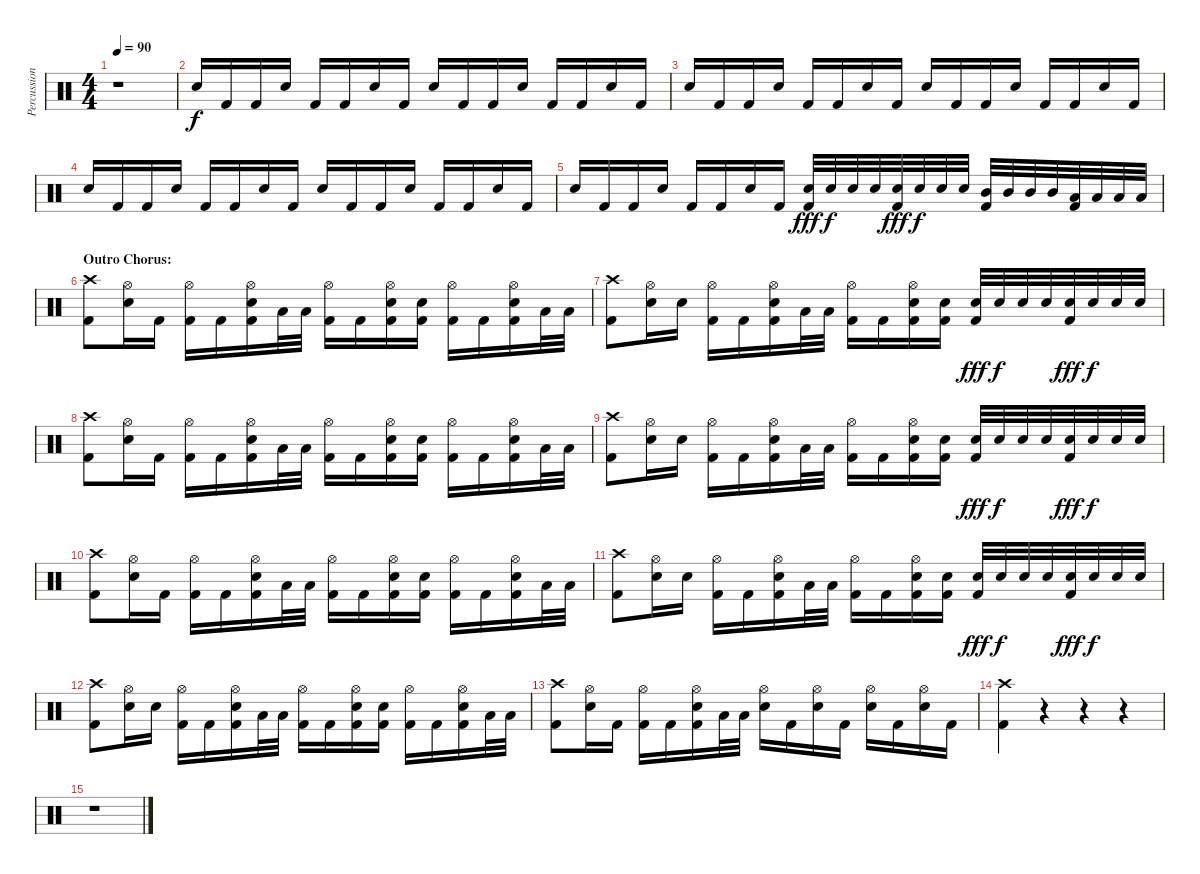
\track ("Percussion" "Percussion") {instrument percussion}
\staff {score}
\articulation defaults
\ts (4 4)
\tempo 90
\clef neutral
\ks c
r.1{dy f} |
"Electric Snare (hit)".16 "Kick (hit) 2".16 "Kick (hit) 2".16 "Electric Snare (hit)".16 "Kick (hit) 2".16 "Kick (hit) 2".16 "Electric Snare (hit)".16 "Kick (hit) 2".16 "Electric Snare (hit)".16 "Kick (hit) 2".16 "Kick (hit) 2".16 "Electric Snare (hit)".16 "Kick (hit) 2".16 "Kick (hit) 2".16 "Electric Snare (hit)".16 "Kick (hit) 2".16 |
"Electric Snare (hit)".16 "Kick (hit) 2".16 "Kick (hit) 2".16 "Electric Snare (hit)".16 "Kick (hit) 2".16 "Kick (hit) 2".16 "Electric Snare (hit)".16 "Kick (hit) 2".16 "Electric Snare (hit)".16 "Kick (hit) 2".16 "Kick (hit) 2".16 "Electric Snare (hit)".16 "Kick (hit) 2".16 "Kick (hit) 2".16 "Electric Snare (hit)".16 "Kick (hit) 2".16 |
"Electric Snare (hit)".16 "Kick (hit) 2".16 "Kick (hit) 2".16 "Electric Snare (hit)".16 "Kick (hit) 2".16 "Kick (hit) 2".16 "Electric Snare (hit)".16 "Kick (hit) 2".16 "Electric Snare (hit)".16 "Kick (hit) 2".16 "Kick (hit) 2".16 "Electric Snare (hit)".16 "Kick (hit) 2".16 "Kick (hit) 2".16 "Electric Snare (hit)".16 "Kick (hit) 2".16 |
"Electric Snare (hit)".16 "Kick (hit) 2".16 "Kick (hit) 2".16 "Electric Snare (hit)".16 "Kick (hit) 2".16 "Kick (hit) 2".16 "Electric Snare (hit)".16 "Kick (hit) 2".16 ("Electric Snare (hit)" "Kick (hit) 2").32{dy fff} "Electric Snare (hit)".32{dy f} "Electric Snare (hit)".32 "Electric Snare (hit)".32 ("Electric Snare (hit)" "Kick (hit) 2").32{dy fff} "Electric Snare (hit)".32{dy f} "Electric Snare (hit)".32 "Electric Snare (hit)".32 ("Mid Tom (hit)" "Kick (hit) 2").32 "Mid Tom (hit)".32 "Mid Tom (hit)".32 "Mid Tom (hit)".32 ("Low Tom (hit)" "Kick (hit) 2").32 "Low Tom (hit)".32 "Low Tom (hit)".32 "Low Tom (hit)".32 |
\section ("" "Outro Chorus:")
("Crash high (hit)" "Kick (hit) 2").8 ("Hi-Hat (open)" "Electric Snare (hit)").16 "Kick (hit) 2".16 ("Hi-Hat (open)" "Kick (hit) 2").16 "Kick (hit) 2".16 ("Hi-Hat (open)" "Electric Snare (hit)" "Kick (hit) 2").16 "Low Floor Tom (hit)".32 "Low Floor Tom (hit)".32 ("Hi-Hat (open)" "Kick (hit) 2").16 "Kick (hit) 2".16 ("Hi-Hat (open)" "Electric Snare (hit)" "Kick (hit) 2").16 ("Electric Snare (hit)" "Kick (hit) 2").16 ("Hi-Hat (open)" "Kick (hit) 2").16 "Kick (hit) 2".16 ("Hi-Hat (open)" "Electric Snare (hit)" "Kick (hit) 2").16 "Low Floor Tom (hit)".32 "Low Floor Tom (hit)".32 |
("Crash high (hit)" "Kick (hit) 2").8 ("Hi-Hat (open)" "Electric Snare (hit)").16 "Electric Snare (hit)".16 ("Hi-Hat (open)" "Kick (hit) 2").16 "Kick (hit) 2".16 ("Hi-Hat (open)" "Electric Snare (hit)" "Kick (hit) 2").16 "Low Floor Tom (hit)".32 "Low Floor Tom (hit)".32 ("Hi-Hat (open)" "Kick (hit) 2").16 "Kick (hit) 2".16 ("Hi-Hat (open)" "Electric Snare (hit)" "Kick (hit) 2").16 ("Electric Snare (hit)" "Kick (hit) 2").16 ("Electric Snare (hit)" "Kick (hit) 2").32{dy fff} "Electric Snare (hit)".32{dy f} "Electric Snare (hit)".32 "Electric Snare (hit)".32 ("Electric Snare (hit)" "Kick (hit) 2").32{dy fff} "Electric Snare (hit)".32{dy f} "Electric Snare (hit)".32 "Electric Snare (hit)".32 |
("Crash high (hit)" "Kick (hit) 2").8 ("Hi-Hat (open)" "Electric Snare (hit)").16 "Kick (hit) 2".16 ("Hi-Hat (open)" "Kick (hit) 2").16 "Kick (hit) 2".16 ("Hi-Hat (open)" "Electric Snare (hit)" "Kick (hit) 2").16 "Low Floor Tom (hit)".32 "Low Floor Tom (hit)".32 ("Hi-Hat (open)" "Kick (hit) 2").16 "Kick (hit) 2".16 ("Hi-Hat (open)" "Electric Snare (hit)" "Kick (hit) 2").16 ("Electric Snare (hit)" "Kick (hit) 2").16 ("Hi-Hat (open)" "Kick (hit) 2").16 "Kick (hit) 2".16 ("Hi-Hat (open)" "Electric Snare (hit)" "Kick (hit) 2").16 "Low Floor Tom (hit)".32 "Low Floor Tom (hit)".32 |
("Crash high (hit)" "Kick (hit) 2").8 ("Hi-Hat (open)" "Electric Snare (hit)").16 "Electric Snare (hit)".16 ("Hi-Hat (open)" "Kick (hit) 2").16 "Kick (hit) 2".16 ("Hi-Hat (open)" "Electric Snare (hit)" "Kick (hit) 2").16 "Low Floor Tom (hit)".32 "Low Floor Tom (hit)".32 ("Hi-Hat (open)" "Kick (hit) 2").16 "Kick (hit) 2".16 ("Hi-Hat (open)" "Electric Snare (hit)" "Kick (hit) 2").16 ("Electric Snare (hit)" "Kick (hit) 2").16 ("Electric Snare (hit)" "Kick (hit) 2").32{dy fff} "Electric Snare (hit)".32{dy f} "Electric Snare (hit)".32 "Electric Snare (hit)".32 ("Electric Snare (hit)" "Kick (hit) 2").32{dy fff} "Electric Snare (hit)".32{dy f} "Electric Snare (hit)".32 "Electric Snare (hit)".32 |
("Crash high (hit)" "Kick (hit) 2").8 ("Hi-Hat (open)" "Electric Snare (hit)").16 "Kick (hit) 2".16 ("Hi-Hat (open)" "Kick (hit) 2").16 "Kick (hit) 2".16 ("Hi-Hat (open)" "Electric Snare (hit)" "Kick (hit) 2").16 "Low Floor Tom (hit)".32 "Low Floor Tom (hit)".32 ("Hi-Hat (open)" "Kick (hit) 2").16 "Kick (hit) 2".16 ("Hi-Hat (open)" "Electric Snare (hit)" "Kick (hit) 2").16 ("Electric Snare (hit)" "Kick (hit) 2").16 ("Hi-Hat (open)" "Kick (hit) 2").16 "Kick (hit) 2".16 ("Hi-Hat (open)" "Electric Snare (hit)" "Kick (hit) 2").16 "Low Floor Tom (hit)".32 "Low Floor Tom (hit)".32 |
("Crash high (hit)" "Kick (hit) 2").8 ("Hi-Hat (open)" "Electric Snare (hit)").16 "Electric Snare (hit)".16 ("Hi-Hat (open)" "Kick (hit) 2").16 "Kick (hit) 2".16 ("Hi-Hat (open)" "Electric Snare (hit)" "Kick (hit) 2").16 "Low Floor Tom (hit)".32 "Low Floor Tom (hit)".32 ("Hi-Hat (open)" "Kick (hit) 2").16 "Kick (hit) 2".16 ("Hi-Hat (open)" "Electric Snare (hit)" "Kick (hit) 2").16 ("Electric Snare (hit)" "Kick (hit) 2").16 ("Electric Snare (hit)" "Kick (hit) 2").32{dy fff} "Electric Snare (hit)".32{dy f} "Electric Snare (hit)".32 "Electric Snare (hit)".32 ("Electric Snare (hit)" "Kick (hit) 2").32{dy fff} "Electric Snare (hit)".32{dy f} "Electric Snare (hit)".32 "Electric Snare (hit)".32 |
("Crash high (hit)" "Kick (hit) 2").8 ("Hi-Hat (open)" "Electric Snare (hit)").16 "Electric Snare (hit)".16 ("Hi-Hat (open)" "Kick (hit) 2").16 "Kick (hit) 2".16 ("Hi-Hat (open)" "Electric Snare (hit)" "Kick (hit) 2").16 "Low Floor Tom (hit)".32 "Low Floor Tom (hit)".32 ("Hi-Hat (open)" "Kick (hit) 2").16 "Kick (hit) 2".16 ("Hi-Hat (open)" "Electric Snare (hit)" "Kick (hit) 2").16 ("Electric Snare (hit)" "Kick (hit) 2").16 ("Hi-Hat (open)" "Kick (hit) 2").16 "Kick (hit) 2".16 ("Hi-Hat (open)" "Electric Snare (hit)" "Kick (hit) 2").16 "Low Floor Tom (hit)".32 "Low Floor Tom (hit)".32 |
("Crash high (hit)" "Kick (hit) 2").8 ("Hi-Hat (open)" "Electric Snare (hit)").16 "Kick (hit) 2".16 ("Hi-Hat (open)" "Kick (hit) 2").16 "Kick (hit) 2".16 ("Hi-Hat (open)" "Electric Snare (hit)" "Kick (hit) 2").16 "Low Floor Tom (hit)".32 "Low Floor Tom (hit)".32 ("Hi-Hat (open)" "Electric Snare (hit)").16 "Kick (hit) 2".16 ("Hi-Hat (open)" "Electric Snare (hit)").16 "Kick (hit) 2".16 ("Hi-Hat (open)" "Electric Snare (hit)").16 "Kick (hit) 2".16 ("Hi-Hat (open)" "Electric Snare (hit)").16 "Kick (hit) 2".16 |
("Crash high (hit)" "Kick (hit) 2").4 r.4 r.4 r.4 |
r.1
